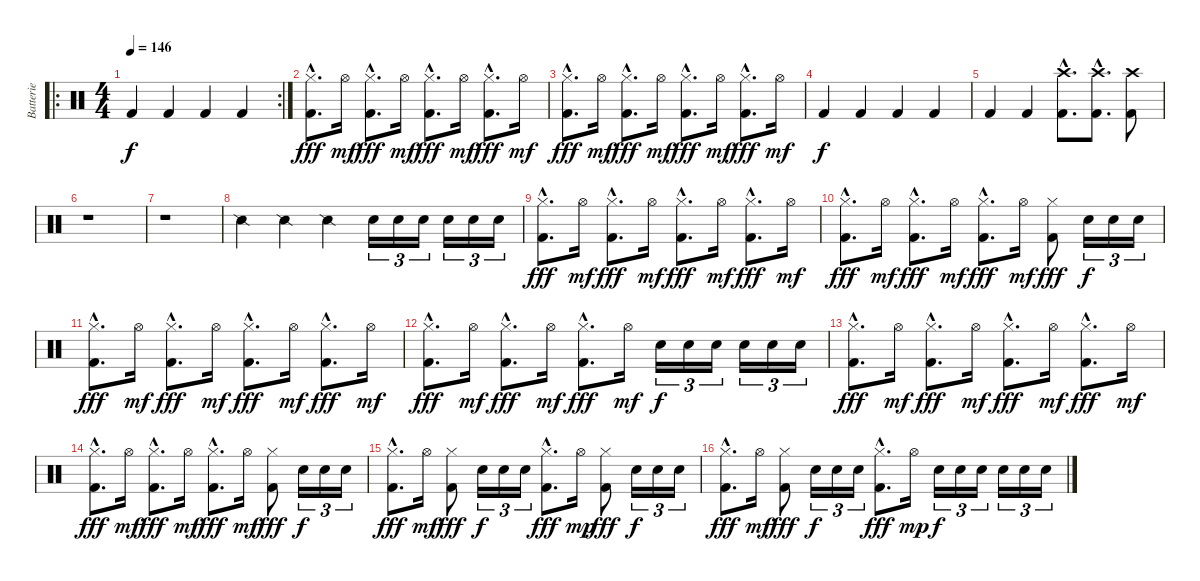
\track ("Batterie" "Batterie") {instrument percussion}
\staff {score}
\articulation defaults
\ro
\rc 2
\ts (4 4)
\tempo 146
\clef neutral
\ks c "Kick (hit) 2".4{dy f} "Kick (hit) 2".4 "Kick (hit) 2".4 "Kick (hit) 2".4
|
("Hi-Hat (closed)"{hac} "Kick (hit) 2"{hac}).8{d dy fff} "Hi-Hat (open)".16{dy mf} ("Hi-Hat (closed)"{hac} "Kick (hit) 2"{hac}).8{d dy fff} "Hi-Hat (open)".16{dy mf} ("Hi-Hat (closed)"{hac} "Kick (hit) 2"{hac}).8{d dy fff} "Hi-Hat (open)".16{dy mf} ("Hi-Hat (closed)"{hac} "Kick (hit) 2"{hac}).8{d dy fff} "Hi-Hat (open)".16{dy mf} |
("Hi-Hat (closed)"{hac} "Kick (hit) 2"{hac}).8{d dy fff} "Hi-Hat (open)".16{dy mf} ("Hi-Hat (closed)"{hac} "Kick (hit) 2"{hac}).8{d dy fff} "Hi-Hat (open)".16{dy mf} ("Hi-Hat (closed)"{hac} "Kick (hit) 2"{hac}).8{d dy fff} "Hi-Hat (open)".16{dy mf} ("Hi-Hat (closed)"{hac} "Kick (hit) 2"{hac}).8{d dy fff} "Hi-Hat (open)".16{dy mf} |
"Kick (hit) 2".4{dy f} "Kick (hit) 2".4 "Kick (hit) 2".4 "Kick (hit) 2".4 |
"Kick (hit) 2".4 "Kick (hit) 2".4 ("Crash high (hit)"{hac} "Kick (hit) 2"{hac}).8{d} ("Crash high (hit)"{hac} "Kick (hit) 2"{hac}).8{d} ("Crash high (hit)" "Kick (hit) 2").8 |
r.1 |
r.1 |
"Snare (side stick) 2".4 "Snare (side stick) 2".4 "Snare (side stick) 2".4 "Electric Snare (hit)".16{tu (3 2)} "Electric Snare (hit)".16{tu (3 2)} "Electric Snare (hit)".16{tu (3 2)} "Electric Snare (hit)".16{tu (3 2)} "Electric Snare (hit)".16{tu (3 2)} "Electric Snare (hit)".16{tu (3 2)} |
("Hi-Hat (closed)"{hac} "Kick (hit) 2"{hac}).8{d dy fff} "Hi-Hat (open)".16{dy mf} ("Hi-Hat (closed)"{hac} "Kick (hit) 2"{hac}).8{d dy fff} "Hi-Hat (open)".16{dy mf} ("Hi-Hat (closed)"{hac} "Kick (hit) 2"{hac}).8{d dy fff} "Hi-Hat (open)".16{dy mf} ("Hi-Hat (closed)"{hac} "Kick (hit) 2"{hac}).8{d dy fff} "Hi-Hat (open)".16{dy mf} |
("Hi-Hat (closed)"{hac} "Kick (hit) 2"{hac}).8{d dy fff} "Hi-Hat (open)".16{dy mf} ("Hi-Hat (closed)"{hac} "Kick (hit) 2"{hac}).8{d dy fff} "Hi-Hat (open)".16{dy mf} ("Hi-Hat (closed)"{hac} "Kick (hit) 2"{hac}).8{d dy fff} "Hi-Hat (open)".16{dy mf} ("Hi-Hat (closed)" "Kick (hit) 2").8{dy fff} "Electric Snare (hit)".16{tu (3 2) dy f} "Electric Snare (hit)".16{tu (3 2)} "Electric Snare (hit)".16{tu (3 2)} |
("Hi-Hat (closed)"{hac} "Kick (hit) 2"{hac}).8{d dy fff} "Hi-Hat (open)".16{dy mf} ("Hi-Hat (closed)"{hac} "Kick (hit) 2"{hac}).8{d dy fff} "Hi-Hat (open)".16{dy mf} ("Hi-Hat (closed)"{hac} "Kick (hit) 2"{hac}).8{d dy fff} "Hi-Hat (open)".16{dy mf} ("Hi-Hat (closed)"{hac} "Kick (hit) 2"{hac}).8{d dy fff} "Hi-Hat (open)".16{dy mf} |
("Hi-Hat (closed)"{hac} "Kick (hit) 2"{hac}).8{d dy fff} "Hi-Hat (open)".16{dy mf} ("Hi-Hat (closed)"{hac} "Kick (hit) 2"{hac}).8{d dy fff} "Hi-Hat (open)".16{dy mf} ("Hi-Hat (closed)"{hac} "Kick (hit) 2"{hac}).8{d dy fff} "Hi-Hat (open)".16{dy mf} "Electric Snare (hit)".16{tu (3 2) dy f} "Electric Snare (hit)".16{tu (3 2)} "Electric Snare (hit)".16{tu (3 2)} "Electric Snare (hit)".16{tu (3 2)} "Electric Snare (hit)".16{tu (3 2)} "Electric Snare (hit)".16{tu (3 2)} |
("Hi-Hat (closed)"{hac} "Kick (hit) 2"{hac}).8{d dy fff} "Hi-Hat (open)".16{dy mf} ("Hi-Hat (closed)"{hac} "Kick (hit) 2"{hac}).8{d dy fff} "Hi-Hat (open)".16{dy mf} ("Hi-Hat (closed)"{hac} "Kick (hit) 2"{hac}).8{d dy fff} "Hi-Hat (open)".16{dy mf} ("Hi-Hat (closed)"{hac} "Kick (hit) 2"{hac}).8{d dy fff} "Hi-Hat (open)".16{dy mf} |
("Hi-Hat (closed)"{hac} "Kick (hit) 2"{hac}).8{d dy fff} "Hi-Hat (open)".16{dy mf} ("Hi-Hat (closed)"{hac} "Kick (hit) 2"{hac}).8{d dy fff} "Hi-Hat (open)".16{dy mf} ("Hi-Hat (closed)"{hac} "Kick (hit) 2"{hac}).8{d dy fff} "Hi-Hat (open)".16{dy mf} ("Hi-Hat (closed)" "Kick (hit) 2").8{dy fff} "Electric Snare (hit)".16{tu (3 2) dy f} "Electric Snare (hit)".16{tu (3 2)} "Electric Snare (hit)".16{tu (3 2)} |
("Hi-Hat (closed)"{hac} "Kick (hit) 2"{hac}).8{d dy fff} "Hi-Hat (open)".16{dy mf} ("Hi-Hat (closed)" "Kick (hit) 2").8{dy fff} "Electric Snare (hit)".16{tu (3 2) dy f} "Electric Snare (hit)".16{tu (3 2)} "Electric Snare (hit)".16{tu (3 2)} ("Hi-Hat (closed)"{hac} "Kick (hit) 2"{hac}).8{d dy fff} "Hi-Hat (open)".16{dy mp} ("Hi-Hat (closed)" "Kick (hit) 2").8{dy fff} "Electric Snare (hit)".16{tu (3 2) dy f} "Electric Snare (hit)".16{tu (3 2)} "Electric Snare (hit)".16{tu (3 2)} |
("Hi-Hat (closed)"{hac} "Kick (hit) 2"{hac}).8{d dy fff} "Hi-Hat (open)".16{dy mf} ("Hi-Hat (closed)" "Kick (hit) 2").8{dy fff} "Electric Snare (hit)".16{tu (3 2) dy f} "Electric Snare (hit)".16{tu (3 2)} "Electric Snare (hit)".16{tu (3 2)} ("Hi-Hat (closed)"{hac} "Kick (hit) 2"{hac}).8{d dy fff} "Hi-Hat (open)".16{dy mp} "Electric Snare (hit)".16{tu (3 2) dy f} "Electric Snare (hit)".16{tu (3 2)} "Electric Snare (hit)".16{tu (3 2)} "Electric Snare (hit)".16{tu (3 2)} "Electric Snare (hit)".16{tu (3 2)} "Electric Snare (hit)".16{tu (3 2)}
